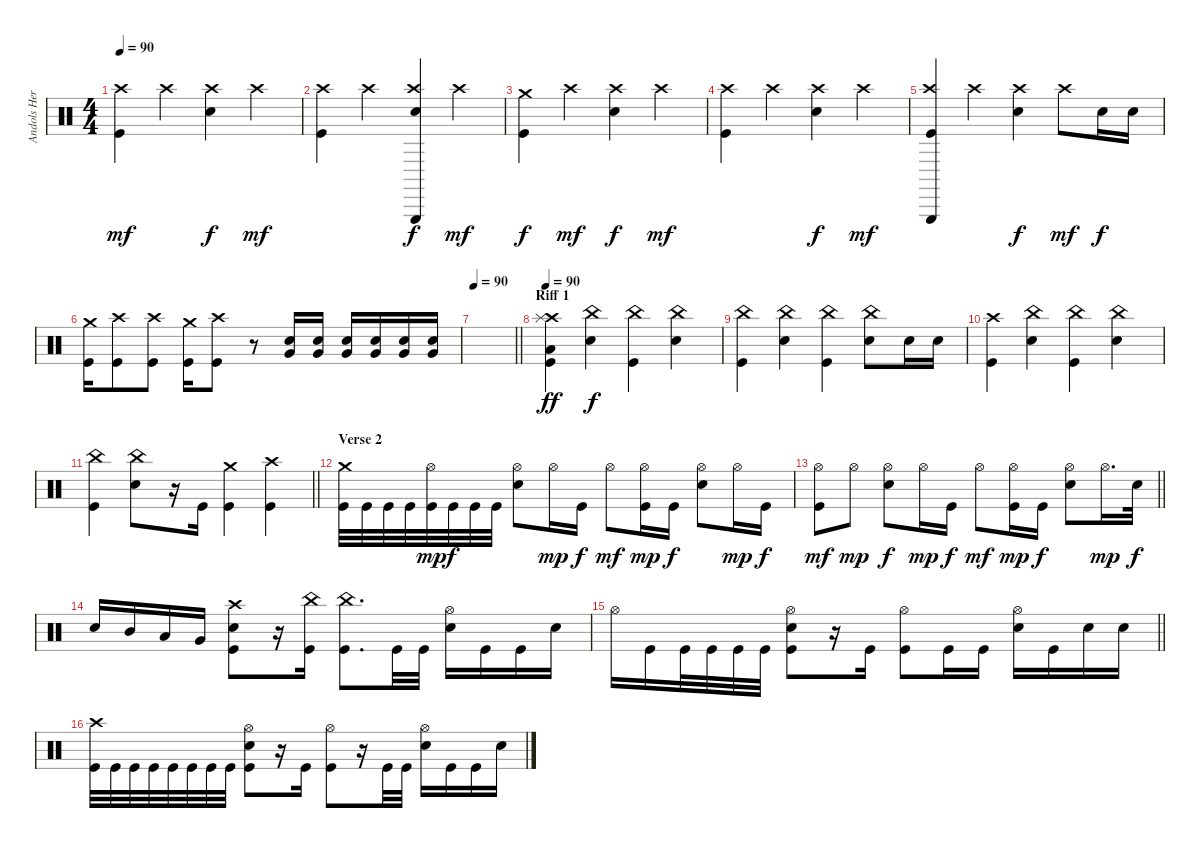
\track ("Andols Herrick" "Andols Her") {instrument percussion}
\staff
\articulation defaults
\ts (4 4)
\tempo 90
\clef neutral
\ks c
("Crash high (hit)" "Kick (hit)").4{dy mf} "Crash high (hit)".4 ("Crash high (hit)" "Electric Snare (hit)").4{dy f} "Crash high (hit)".4{dy mf} |
("Crash high (hit)" "Kick (hit)").4 "Crash high (hit)".4 ("Triangle (hit)" "Crash high (hit)" "Electric Snare (hit)").4{dy f} "Crash high (hit)".4{dy mf} |
("Crash medium (hit)" "Kick (hit)").4{dy f} "Crash high (hit)".4{dy mf} ("Crash high (hit)" "Electric Snare (hit)").4{dy f} "Crash high (hit)".4{dy mf} |
("Crash high (hit)" "Kick (hit)").4 "Crash high (hit)".4 ("Crash high (hit)" "Electric Snare (hit)").4{dy f} "Crash high (hit)".4{dy mf} |
("Triangle (hit)" "Crash high (hit)" "Kick (hit)").4 "Crash high (hit)".4 ("Crash high (hit)" "Electric Snare (hit)").4{dy f} "Crash high (hit)".8{dy mf} "Electric Snare (hit)".16{dy f} "Electric Snare (hit)".16 |
("Crash medium (hit)" "Kick (hit)").16 ("Crash high (hit)" "Kick (hit)").8 ("Crash high (hit)" "Kick (hit)").8 ("Crash medium (hit)" "Kick (hit)").16 ("Crash high (hit)" "Kick (hit)").8 r.8 ("Electric Snare (hit)" "Very Low Tom (hit)").16 ("Electric Snare (hit)" "Very Low Tom (hit)").16 ("Electric Snare (hit)" "Very Low Tom (hit)").16 ("Electric Snare (hit)" "Very Low Tom (hit)").16 ("Electric Snare (hit)" "Very Low Tom (hit)").16 ("Electric Snare (hit)" "Very Low Tom (hit)").16 |
\tempo 90
\barLineRight lightlight
|
\section ("" "Riff 1")
\tempo 90
("Crash high (hit)" "Splash (hit)" "Low Floor Tom (hit)" "Kick (hit)").4{dy ff} ("China (hit)" "Electric Snare (hit)").4{dy f} ("China (hit)" "Kick (hit)").4 ("China (hit)" "Electric Snare (hit)").4 |
("China (hit)" "Kick (hit)").4 ("China (hit)" "Electric Snare (hit)").4 ("China (hit)" "Kick (hit)").4 ("China (hit)" "Electric Snare (hit)").8 "Electric Snare (hit)".16 "Electric Snare (hit)".16 |
("Crash high (hit)" "Kick (hit)").4 ("China (hit)" "Electric Snare (hit)").4 ("China (hit)" "Kick (hit)").4 ("China (hit)" "Electric Snare (hit)").4 |
\barLineRight lightlight
("China (hit)" "Kick (hit)").4 ("China (hit)" "Electric Snare (hit)").8 r.16 "Kick (hit)".16 ("Crash medium (hit)" "Kick (hit)").4 ("Crash high (hit)" "Kick (hit)").4 |
\section ("" "Verse 2")
("Crash medium (hit)" "Kick (hit)").32 "Kick (hit)".32 "Kick (hit)".32 "Kick (hit)".32 ("Hi-Hat (open)" "Kick (hit)").32{dy mp} "Kick (hit)".32{dy f} "Kick (hit)".32 "Kick (hit)".32 ("Hi-Hat (open)" "Electric Snare (hit)").8 "Hi-Hat (open)".16{dy mp} "Kick (hit)".16{dy f} "Hi-Hat (open)".8{dy mf} ("Hi-Hat (open)" "Kick (hit)").16{dy mp} "Kick (hit)".16{dy f} ("Hi-Hat (open)" "Electric Snare (hit)").8 "Hi-Hat (open)".16{dy mp} "Kick (hit)".16{dy f} |
\barLineRight lightlight
("Hi-Hat (open)" "Kick (hit)").8{dy mf} "Hi-Hat (open)".8{dy mp} ("Hi-Hat (open)" "Electric Snare (hit)").8{dy f} "Hi-Hat (open)".16{dy mp} "Kick (hit)".16{dy f} "Hi-Hat (open)".8{dy mf} ("Hi-Hat (open)" "Kick (hit)").16{dy mp} "Kick (hit)".16{dy f} ("Hi-Hat (open)" "Electric Snare (hit)").8 "Hi-Hat (open)".16{d dy mp} "Electric Snare (hit)".32{dy f} |
"Electric Snare (hit)".16 "Mid Tom (hit)".16 "Low Tom (hit)".16 "Very Low Tom (hit)".16 ("Crash high (hit)" "Electric Snare (hit)" "Kick (hit)").8 r.16 ("China (hit)" "Kick (hit)").16 ("China (hit)" "Kick (hit)").8{d} "Kick (hit)".32 "Kick (hit)".32 ("Hi-Hat (open)" "Electric Snare (hit)").16 "Kick (hit)".16 "Kick (hit)".16 "Electric Snare (hit)".16 |
\barLineRight lightlight "Hi-Hat (open)".16 "Kick (hit)".16 "Kick (hit)".32 "Kick (hit)".32 "Kick (hit)".32 "Kick (hit)".32
("Hi-Hat (open)" "Electric Snare (hit)" "Kick (hit)").8 r.16 "Kick (hit)".16 ("Hi-Hat (open)" "Kick (hit)").8 "Kick (hit)".16 "Kick (hit)".16 ("Hi-Hat (open)" "Electric Snare (hit)").16 "Kick (hit)".16 "Electric Snare (hit)".16 "Electric Snare (hit)".16 |
("Crash high (hit)" "Kick (hit)").32 "Kick (hit)".32 "Kick (hit)".32 "Kick (hit)".32 "Kick (hit)".32 "Kick (hit)".32 "Kick (hit)".32 "Kick (hit)".32 ("Hi-Hat (open)" "Electric Snare (hit)" "Kick (hit)").8 r.16 "Kick (hit)".16 ("Hi-Hat (open)" "Kick (hit)").8 r.16 "Kick (hit)".32 "Kick (hit)".32 ("Hi-Hat (open)" "Electric Snare (hit)").16 "Kick (hit)".16 "Kick (hit)".16 "Electric Snare (hit)".16
